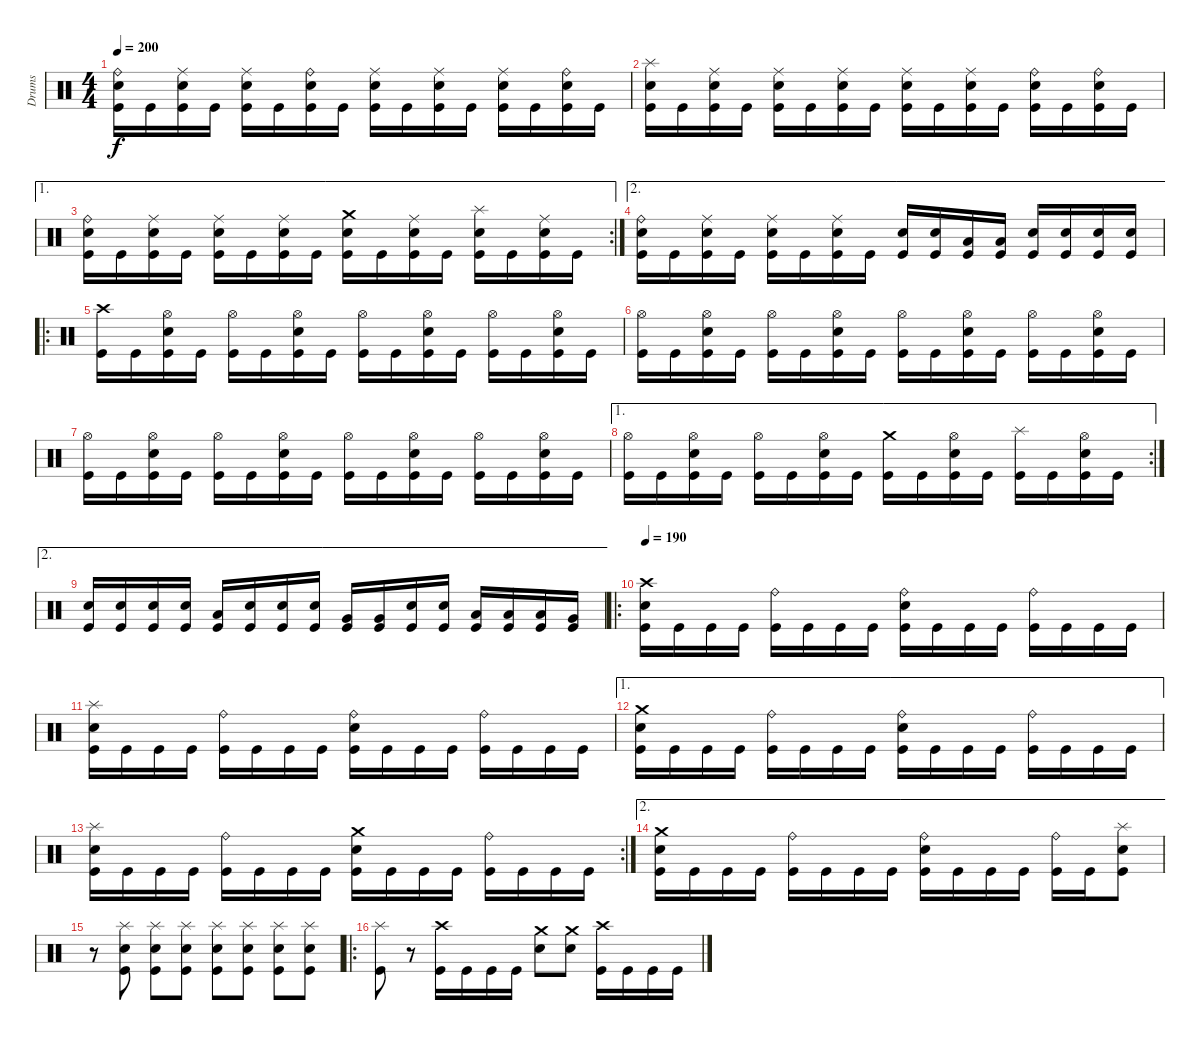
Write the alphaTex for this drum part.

\track ("Drums" "Drums") {instrument percussion}
\staff {score}
\articulation defaults
\ts (4 4)
\tempo 200
\clef neutral
\ks c
("Ride (bell)" "Electric Snare (hit)" "Kick (hit)").16{dy f} "Kick (hit)".16 ("Ride (middle)" "Electric Snare (hit)" "Kick (hit)").16 "Kick (hit)".16 ("Ride (middle)" "Electric Snare (hit)" "Kick (hit)").16 "Kick (hit)".16 ("Ride (bell)" "Electric Snare (hit)" "Kick (hit)").16 "Kick (hit)".16 ("Ride (middle)" "Electric Snare (hit)" "Kick (hit)").16 "Kick (hit)".16 ("Ride (middle)" "Electric Snare (hit)" "Kick (hit)").16 "Kick (hit)".16 ("Ride (middle)" "Electric Snare (hit)" "Kick (hit)").16 "Kick (hit)".16 ("Ride (bell)" "Electric Snare (hit)" "Kick (hit)").16 "Kick (hit)".16 |
("Splash (hit)" "Electric Snare (hit)" "Kick (hit)").16 "Kick (hit)".16 ("Ride (middle)" "Electric Snare (hit)" "Kick (hit)").16 "Kick (hit)".16 ("Ride (middle)" "Electric Snare (hit)" "Kick (hit)").16 "Kick (hit)".16 ("Ride (middle)" "Electric Snare (hit)" "Kick (hit)").16 "Kick (hit)".16 ("Ride (middle)" "Electric Snare (hit)" "Kick (hit)").16 "Kick (hit)".16 ("Ride (middle)" "Electric Snare (hit)" "Kick (hit)").16 "Kick (hit)".16 ("Ride (bell)" "Electric Snare (hit)" "Kick (hit)").16 "Kick (hit)".16 ("Ride (bell)" "Electric Snare (hit)" "Kick (hit)").16 "Kick (hit)".16 |
\ae 1
\rc 2
("Ride (bell)" "Electric Snare (hit)" "Kick (hit)").16 "Kick (hit)".16 ("Ride (middle)" "Electric Snare (hit)" "Kick (hit)").16 "Kick (hit)".16 ("Ride (middle)" "Electric Snare (hit)" "Kick (hit)").16 "Kick (hit)".16 ("Ride (middle)" "Electric Snare (hit)" "Kick (hit)").16 "Kick (hit)".16 ("Crash medium (hit)" "Electric Snare (hit)" "Kick (hit)").16 "Kick (hit)".16 ("Ride (middle)" "Electric Snare (hit)" "Kick (hit)").16 "Kick (hit)".16 ("Splash (hit)" "Electric Snare (hit)" "Kick (hit)").16 "Kick (hit)".16 ("Ride (middle)" "Electric Snare (hit)" "Kick (hit)").16 "Kick (hit)".16 |
\ae 2
("Ride (bell)" "Electric Snare (hit)" "Kick (hit)").16 "Kick (hit)".16 ("Ride (middle)" "Electric Snare (hit)" "Kick (hit)").16 "Kick (hit)".16 ("Ride (middle)" "Electric Snare (hit)" "Kick (hit)").16 "Kick (hit)".16 ("Ride (middle)" "Electric Snare (hit)" "Kick (hit)").16 "Kick (hit)".16 ("Electric Snare (hit)" "Kick (hit)").16 ("Electric Snare (hit)" "Kick (hit)").16 ("Low Tom (hit)" "Kick (hit)").16 ("Low Tom (hit)" "Kick (hit)").16 ("Electric Snare (hit)" "Kick (hit)").16 ("Electric Snare (hit)" "Kick (hit)").16 ("Electric Snare (hit)" "Kick (hit)").16 ("Electric Snare (hit)" "Kick (hit)").16 |
\ro
("Crash high (hit)" "Kick (hit)").16 "Kick (hit)".16 ("Hi-Hat (open)" "Electric Snare (hit)" "Kick (hit)").16 "Kick (hit)".16 ("Hi-Hat (open)" "Kick (hit)").16 "Kick (hit)".16 ("Hi-Hat (open)" "Electric Snare (hit)" "Kick (hit)").16 "Kick (hit)".16 ("Hi-Hat (open)" "Kick (hit)").16 "Kick (hit)".16 ("Hi-Hat (open)" "Electric Snare (hit)" "Kick (hit)").16 "Kick (hit)".16 ("Hi-Hat (open)" "Kick (hit)").16 "Kick (hit)".16 ("Hi-Hat (open)" "Electric Snare (hit)" "Kick (hit)").16 "Kick (hit)".16 |
("Hi-Hat (open)" "Kick (hit)").16 "Kick (hit)".16 ("Hi-Hat (open)" "Electric Snare (hit)" "Kick (hit)").16 "Kick (hit)".16 ("Hi-Hat (open)" "Kick (hit)").16 "Kick (hit)".16 ("Hi-Hat (open)" "Electric Snare (hit)" "Kick (hit)").16 "Kick (hit)".16 ("Hi-Hat (open)" "Kick (hit)").16 "Kick (hit)".16 ("Hi-Hat (open)" "Electric Snare (hit)" "Kick (hit)").16 "Kick (hit)".16 ("Hi-Hat (open)" "Kick (hit)").16 "Kick (hit)".16 ("Hi-Hat (open)" "Electric Snare (hit)" "Kick (hit)").16 "Kick (hit)".16 |
("Hi-Hat (open)" "Kick (hit)").16 "Kick (hit)".16 ("Hi-Hat (open)" "Electric Snare (hit)" "Kick (hit)").16 "Kick (hit)".16 ("Hi-Hat (open)" "Kick (hit)").16 "Kick (hit)".16 ("Hi-Hat (open)" "Electric Snare (hit)" "Kick (hit)").16 "Kick (hit)".16 ("Hi-Hat (open)" "Kick (hit)").16 "Kick (hit)".16 ("Hi-Hat (open)" "Electric Snare (hit)" "Kick (hit)").16 "Kick (hit)".16 ("Hi-Hat (open)" "Kick (hit)").16 "Kick (hit)".16 ("Hi-Hat (open)" "Electric Snare (hit)" "Kick (hit)").16 "Kick (hit)".16 |
\ae 1
\rc 2
("Hi-Hat (open)" "Kick (hit)").16 "Kick (hit)".16 ("Hi-Hat (open)" "Electric Snare (hit)" "Kick (hit)").16 "Kick (hit)".16 ("Hi-Hat (open)" "Kick (hit)").16 "Kick (hit)".16 ("Hi-Hat (open)" "Electric Snare (hit)" "Kick (hit)").16 "Kick (hit)".16 ("Crash medium (hit)" "Kick (hit)").16 "Kick (hit)".16 ("Hi-Hat (open)" "Electric Snare (hit)" "Kick (hit)").16 "Kick (hit)".16 ("Splash (hit)" "Kick (hit)").16 "Kick (hit)".16 ("Hi-Hat (open)" "Electric Snare (hit)" "Kick (hit)").16 "Kick (hit)".16 |
\ae 2
("Electric Snare (hit)" "Kick (hit)").16 ("Electric Snare (hit)" "Kick (hit)").16 ("Electric Snare (hit)" "Kick (hit)").16 ("Electric Snare (hit)" "Kick (hit)").16 ("Low Tom (hit)" "Kick (hit)").16 ("Electric Snare (hit)" "Kick (hit)").16 ("Electric Snare (hit)" "Kick (hit)").16 ("Electric Snare (hit)" "Kick (hit)").16 ("Very Low Tom (hit)" "Kick (hit)").16 ("Very Low Tom (hit)" "Kick (hit)").16 ("Electric Snare (hit)" "Kick (hit)").16 ("Electric Snare (hit)" "Kick (hit)").16 ("Low Tom (hit)" "Kick (hit)").16 ("Low Tom (hit)" "Kick (hit)").16 ("Low Tom (hit)" "Kick (hit)").16 ("Very Low Tom (hit)" "Kick (hit)").16 |
\ro
\tempo 190
("Crash high (hit)" "Electric Snare (hit)" "Kick (hit)").16 "Kick (hit)".16 "Kick (hit)".16 "Kick (hit)".16 ("Ride (bell)" "Kick (hit)").16 "Kick (hit)".16 "Kick (hit)".16 "Kick (hit)".16 ("Ride (bell)" "Electric Snare (hit)" "Kick (hit)").16 "Kick (hit)".16 "Kick (hit)".16 "Kick (hit)".16 ("Ride (bell)" "Kick (hit)").16 "Kick (hit)".16 "Kick (hit)".16 "Kick (hit)".16 |
("Splash (hit)" "Electric Snare (hit)" "Kick (hit)").16 "Kick (hit)".16 "Kick (hit)".16 "Kick (hit)".16 ("Ride (bell)" "Kick (hit)").16 "Kick (hit)".16 "Kick (hit)".16 "Kick (hit)".16 ("Ride (bell)" "Electric Snare (hit)" "Kick (hit)").16 "Kick (hit)".16 "Kick (hit)".16 "Kick (hit)".16 ("Ride (bell)" "Kick (hit)").16 "Kick (hit)".16 "Kick (hit)".16 "Kick (hit)".16 |
\ae 1
("Crash medium (hit)" "Electric Snare (hit)" "Kick (hit)").16 "Kick (hit)".16 "Kick (hit)".16 "Kick (hit)".16 ("Ride (bell)" "Kick (hit)").16 "Kick (hit)".16 "Kick (hit)".16 "Kick (hit)".16 ("Ride (bell)" "Electric Snare (hit)" "Kick (hit)").16 "Kick (hit)".16 "Kick (hit)".16 "Kick (hit)".16 ("Ride (bell)" "Kick (hit)").16 "Kick (hit)".16 "Kick (hit)".16 "Kick (hit)".16 |
\rc 2
("Splash (hit)" "Electric Snare (hit)" "Kick (hit)").16 "Kick (hit)".16 "Kick (hit)".16 "Kick (hit)".16 ("Ride (bell)" "Kick (hit)").16 "Kick (hit)".16 "Kick (hit)".16 "Kick (hit)".16 ("Crash medium (hit)" "Electric Snare (hit)" "Kick (hit)").16 "Kick (hit)".16 "Kick (hit)".16 "Kick (hit)".16 ("Ride (bell)" "Kick (hit)").16 "Kick (hit)".16 "Kick (hit)".16 "Kick (hit)".16 |
\ae 2
("Crash medium (hit)" "Electric Snare (hit)" "Kick (hit)").16 "Kick (hit)".16 "Kick (hit)".16 "Kick (hit)".16 ("Ride (bell)" "Kick (hit)").16 "Kick (hit)".16 "Kick (hit)".16 "Kick (hit)".16 ("Ride (bell)" "Electric Snare (hit)" "Kick (hit)").16 "Kick (hit)".16 "Kick (hit)".16 "Kick (hit)".16 ("Ride (bell)" "Kick (hit)").16 "Kick (hit)".16 ("Splash (hit)" "Electric Snare (hit)" "Kick (hit)").8 |
r.8 ("Splash (hit)" "Electric Snare (hit)" "Kick (hit)").8 ("Splash (hit)" "Electric Snare (hit)" "Kick (hit)").8 ("Splash (hit)" "Electric Snare (hit)" "Kick (hit)").8 ("Splash (hit)" "Electric Snare (hit)" "Kick (hit)").8 ("Splash (hit)" "Electric Snare (hit)" "Kick (hit)").8 ("Splash (hit)" "Electric Snare (hit)" "Kick (hit)").8 ("Splash (hit)" "Electric Snare (hit)" "Kick (hit)").8 |
\ro
("Splash (hit)" "Kick (hit)").8 r.8 ("Crash high (hit)" "Kick (hit)").16 "Kick (hit)".16 "Kick (hit)".16 "Kick (hit)".16 ("Crash medium (hit)" "Electric Snare (hit)").8 ("Crash medium (hit)" "Electric Snare (hit)").8 ("Crash high (hit)" "Kick (hit)").16 "Kick (hit)".16 "Kick (hit)".16 "Kick (hit)".16
